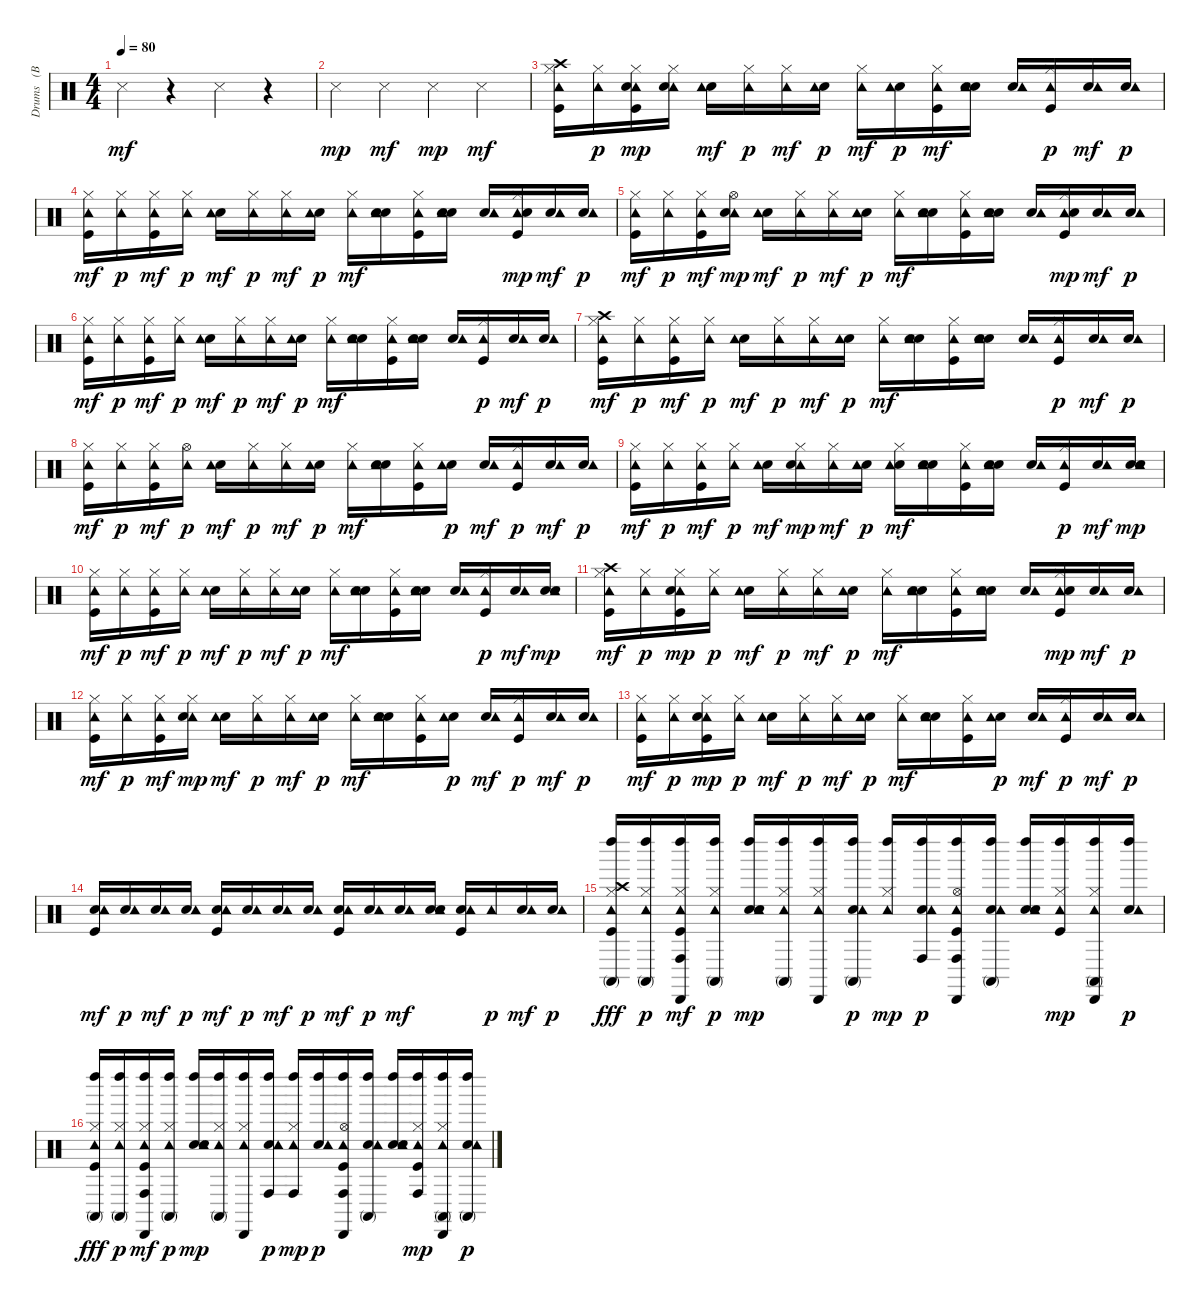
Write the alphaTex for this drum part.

\track ("Drums   (BB)" "Drums   (B") {instrument percussion}
\staff {score}
\articulation defaults
\ts (4 4)
\tempo 80
\clef neutral
\ks c "Snare (side stick) 3".4{dy mf}
r.4 "Snare (side stick) 3".4 r.4 |
"Snare (side stick) 3".4{dy mp} "Snare (side stick) 3".4{dy mf} "Snare (side stick) 3".4{dy mp} "Snare (side stick) 3".4{dy mf} |
("Kick (hit)" "Hi-Hat (closed)" "Crash high (hit)" "Tambourine (hit)").16 ("Hi-Hat (closed)" "Tambourine (hit)").16{dy p} ("Kick (hit)" "Hi-Hat (closed)" "Tambourine (hit)" "Hand Clap (hit)").16{dy mp} ("Hi-Hat (closed)" "Tambourine (hit)" "Hand Clap (hit)").16 ("Snare (hit) 2" "Tambourine (hit)").16{dy mf} ("Hi-Hat (closed)" "Tambourine (hit)").16{dy p} ("Hi-Hat (closed)" "Tambourine (hit)").16{dy mf} ("Snare (hit) 2" "Tambourine (hit)").16{dy p} ("Hi-Hat (closed)" "Tambourine (hit)").16{dy mf} ("Snare (hit) 2" "Tambourine (hit)").16{dy p} ("Kick (hit)" "Hi-Hat (closed)" "Tambourine (hit)").16{dy mf} ("Snare (hit) 2" "Tambourine (hit)" "Hand Clap (hit)").16 ("Snare (hit) 2" "Tambourine (hit)").16 ("Kick (hit)" "Hi-Hat (closed)" "Tambourine (hit)").16{dy p} ("Snare (hit) 2" "Tambourine (hit)").16{dy mf} ("Snare (hit) 2" "Tambourine (hit)").16{dy p} |
("Kick (hit)" "Hi-Hat (closed)" "Tambourine (hit)").16{dy mf} ("Hi-Hat (closed)" "Tambourine (hit)").16{dy p} ("Kick (hit)" "Hi-Hat (closed)" "Tambourine (hit)").16{dy mf} ("Hi-Hat (closed)" "Tambourine (hit)").16{dy p} ("Snare (hit) 2" "Tambourine (hit)").16{dy mf} ("Hi-Hat (closed)" "Tambourine (hit)").16{dy p} ("Hi-Hat (closed)" "Tambourine (hit)").16{dy mf} ("Snare (hit) 2" "Tambourine (hit)").16{dy p} ("Hi-Hat (closed)" "Tambourine (hit)").16{dy mf} ("Snare (hit) 2" "Tambourine (hit)" "Hand Clap (hit)").16 ("Kick (hit)" "Hi-Hat (closed)" "Tambourine (hit)").16 ("Snare (hit) 2" "Tambourine (hit)" "Hand Clap (hit)").16 ("Snare (hit) 2" "Tambourine (hit)").16 ("Kick (hit)" "Hi-Hat (closed)" "Tambourine (hit)" "Hand Clap (hit)").16{dy mp} ("Snare (hit) 2" "Tambourine (hit)").16{dy mf} ("Snare (hit) 2" "Tambourine (hit)").16{dy p} |
("Kick (hit)" "Hi-Hat (closed)" "Tambourine (hit)").16{dy mf} ("Hi-Hat (closed)" "Tambourine (hit)").16{dy p} ("Kick (hit)" "Hi-Hat (closed)" "Tambourine (hit)").16{dy mf} ("Hi-Hat (open)" "Tambourine (hit)" "Hand Clap (hit)").16{dy mp} ("Snare (hit) 2" "Tambourine (hit)").16{dy mf} ("Hi-Hat (closed)" "Tambourine (hit)").16{dy p} ("Hi-Hat (closed)" "Tambourine (hit)").16{dy mf} ("Snare (hit) 2" "Tambourine (hit)").16{dy p} ("Hi-Hat (closed)" "Tambourine (hit)").16{dy mf} ("Snare (hit) 2" "Tambourine (hit)" "Hand Clap (hit)").16 ("Kick (hit)" "Hi-Hat (closed)" "Tambourine (hit)").16 ("Snare (hit) 2" "Tambourine (hit)" "Hand Clap (hit)").16 ("Snare (hit) 2" "Tambourine (hit)").16 ("Kick (hit)" "Hi-Hat (closed)" "Tambourine (hit)" "Hand Clap (hit)").16{dy mp} ("Snare (hit) 2" "Tambourine (hit)").16{dy mf} ("Snare (hit) 2" "Tambourine (hit)").16{dy p} |
("Kick (hit)" "Hi-Hat (closed)" "Tambourine (hit)").16{dy mf} ("Hi-Hat (closed)" "Tambourine (hit)").16{dy p} ("Kick (hit)" "Hi-Hat (closed)" "Tambourine (hit)").16{dy mf} ("Hi-Hat (closed)" "Tambourine (hit)").16{dy p} ("Snare (hit) 2" "Tambourine (hit)").16{dy mf} ("Hi-Hat (closed)" "Tambourine (hit)").16{dy p} ("Hi-Hat (closed)" "Tambourine (hit)").16{dy mf} ("Snare (hit) 2" "Tambourine (hit)").16{dy p} ("Hi-Hat (closed)" "Tambourine (hit)").16{dy mf} ("Snare (hit) 2" "Tambourine (hit)" "Hand Clap (hit)").16 ("Kick (hit)" "Hi-Hat (closed)" "Tambourine (hit)").16 ("Snare (hit) 2" "Tambourine (hit)" "Hand Clap (hit)").16 ("Snare (hit) 2" "Tambourine (hit)").16 ("Kick (hit)" "Hi-Hat (closed)" "Tambourine (hit)").16{dy p} ("Snare (hit) 2" "Tambourine (hit)").16{dy mf} ("Snare (hit) 2" "Tambourine (hit)").16{dy p} |
("Kick (hit)" "Hi-Hat (closed)" "Crash high (hit)" "Tambourine (hit)").16{dy mf} ("Hi-Hat (closed)" "Tambourine (hit)").16{dy p} ("Kick (hit)" "Hi-Hat (closed)" "Tambourine (hit)").16{dy mf} ("Hi-Hat (closed)" "Tambourine (hit)").16{dy p} ("Snare (hit) 2" "Tambourine (hit)").16{dy mf} ("Hi-Hat (closed)" "Tambourine (hit)").16{dy p} ("Hi-Hat (closed)" "Tambourine (hit)").16{dy mf} ("Snare (hit) 2" "Tambourine (hit)").16{dy p} ("Hi-Hat (closed)" "Tambourine (hit)").16{dy mf} ("Snare (hit) 2" "Tambourine (hit)" "Hand Clap (hit)").16 ("Kick (hit)" "Hi-Hat (closed)" "Tambourine (hit)").16 ("Snare (hit) 2" "Tambourine (hit)" "Hand Clap (hit)").16 ("Snare (hit) 2" "Tambourine (hit)").16 ("Kick (hit)" "Hi-Hat (closed)" "Tambourine (hit)").16{dy p} ("Snare (hit) 2" "Tambourine (hit)").16{dy mf} ("Snare (hit) 2" "Tambourine (hit)").16{dy p} |
("Kick (hit)" "Hi-Hat (closed)" "Tambourine (hit)").16{dy mf} ("Hi-Hat (closed)" "Tambourine (hit)").16{dy p} ("Kick (hit)" "Hi-Hat (closed)" "Tambourine (hit)").16{dy mf} ("Hi-Hat (open)" "Tambourine (hit)").16{dy p} ("Snare (hit) 2" "Tambourine (hit)").16{dy mf} ("Hi-Hat (closed)" "Tambourine (hit)").16{dy p} ("Hi-Hat (closed)" "Tambourine (hit)").16{dy mf} ("Snare (hit) 2" "Tambourine (hit)").16{dy p} ("Hi-Hat (closed)" "Tambourine (hit)").16{dy mf} ("Snare (hit) 2" "Tambourine (hit)" "Hand Clap (hit)").16 ("Kick (hit)" "Hi-Hat (closed)" "Tambourine (hit)").16 ("Snare (hit) 2" "Tambourine (hit)").16{dy p} ("Snare (hit) 2" "Tambourine (hit)").16{dy mf} ("Kick (hit)" "Hi-Hat (closed)" "Tambourine (hit)").16{dy p} ("Snare (hit) 2" "Tambourine (hit)").16{dy mf} ("Snare (hit) 2" "Tambourine (hit)").16{dy p} |
("Kick (hit)" "Hi-Hat (closed)" "Tambourine (hit)").16{dy mf} ("Hi-Hat (closed)" "Tambourine (hit)").16{dy p} ("Kick (hit)" "Hi-Hat (closed)" "Tambourine (hit)").16{dy mf} ("Hi-Hat (closed)" "Tambourine (hit)").16{dy p} ("Snare (hit) 2" "Tambourine (hit)").16{dy mf} ("Hi-Hat (closed)" "Tambourine (hit)" "Hand Clap (hit)").16{dy mp} ("Hi-Hat (closed)" "Tambourine (hit)").16{dy mf} ("Snare (hit) 2" "Tambourine (hit)").16{dy p} ("Snare (hit) 2" "Hi-Hat (closed)" "Tambourine (hit)").16{dy mf} ("Snare (hit) 2" "Tambourine (hit)" "Hand Clap (hit)").16 ("Kick (hit)" "Hi-Hat (closed)" "Tambourine (hit)").16 ("Snare (hit) 2" "Tambourine (hit)" "Hand Clap (hit)").16 ("Snare (hit) 2" "Tambourine (hit)").16 ("Kick (hit)" "Hi-Hat (closed)" "Tambourine (hit)").16{dy p} ("Snare (hit) 2" "Tambourine (hit)").16{dy mf} ("Snare (hit) 2" "Tambourine (hit)" "Hand Clap (hit)").16{dy mp} |
("Kick (hit)" "Hi-Hat (closed)" "Tambourine (hit)").16{dy mf} ("Hi-Hat (closed)" "Tambourine (hit)").16{dy p} ("Kick (hit)" "Hi-Hat (closed)" "Tambourine (hit)").16{dy mf} ("Hi-Hat (closed)" "Tambourine (hit)").16{dy p} ("Snare (hit) 2" "Tambourine (hit)").16{dy mf} ("Hi-Hat (closed)" "Tambourine (hit)").16{dy p} ("Hi-Hat (closed)" "Tambourine (hit)").16{dy mf} ("Snare (hit) 2" "Tambourine (hit)").16{dy p} ("Hi-Hat (closed)" "Tambourine (hit)").16{dy mf} ("Snare (hit) 2" "Tambourine (hit)" "Hand Clap (hit)").16 ("Kick (hit)" "Hi-Hat (closed)" "Tambourine (hit)").16 ("Snare (hit) 2" "Tambourine (hit)" "Hand Clap (hit)").16 ("Snare (hit) 2" "Tambourine (hit)").16 ("Kick (hit)" "Hi-Hat (closed)" "Tambourine (hit)").16{dy p} ("Snare (hit) 2" "Tambourine (hit)").16{dy mf} ("Snare (hit) 2" "Tambourine (hit)" "Hand Clap (hit)").16{dy mp} |
("Kick (hit)" "Hi-Hat (closed)" "Crash high (hit)" "Tambourine (hit)").16{dy mf} ("Hi-Hat (closed)" "Tambourine (hit)").16{dy p} ("Kick (hit)" "Hi-Hat (closed)" "Tambourine (hit)" "Hand Clap (hit)").16{dy mp} ("Hi-Hat (closed)" "Tambourine (hit)").16{dy p} ("Snare (hit) 2" "Tambourine (hit)").16{dy mf} ("Hi-Hat (closed)" "Tambourine (hit)").16{dy p} ("Hi-Hat (closed)" "Tambourine (hit)").16{dy mf} ("Snare (hit) 2" "Tambourine (hit)").16{dy p} ("Hi-Hat (closed)" "Tambourine (hit)").16{dy mf} ("Snare (hit) 2" "Tambourine (hit)" "Hand Clap (hit)").16 ("Kick (hit)" "Hi-Hat (closed)" "Tambourine (hit)").16 ("Snare (hit) 2" "Tambourine (hit)" "Hand Clap (hit)").16 ("Snare (hit) 2" "Tambourine (hit)").16 ("Kick (hit)" "Hi-Hat (closed)" "Tambourine (hit)" "Hand Clap (hit)").16{dy mp} ("Snare (hit) 2" "Tambourine (hit)").16{dy mf} ("Snare (hit) 2" "Tambourine (hit)").16{dy p} |
("Kick (hit)" "Hi-Hat (closed)" "Tambourine (hit)").16{dy mf} ("Hi-Hat (closed)" "Tambourine (hit)").16{dy p} ("Kick (hit)" "Hi-Hat (closed)" "Tambourine (hit)").16{dy mf} ("Hi-Hat (closed)" "Tambourine (hit)" "Hand Clap (hit)").16{dy mp} ("Snare (hit) 2" "Tambourine (hit)").16{dy mf} ("Hi-Hat (closed)" "Tambourine (hit)").16{dy p} ("Hi-Hat (closed)" "Tambourine (hit)").16{dy mf} ("Snare (hit) 2" "Tambourine (hit)").16{dy p} ("Hi-Hat (closed)" "Tambourine (hit)").16{dy mf} ("Snare (hit) 2" "Tambourine (hit)" "Hand Clap (hit)").16 ("Kick (hit)" "Hi-Hat (closed)" "Tambourine (hit)").16 ("Snare (hit) 2" "Tambourine (hit)").16{dy p} ("Snare (hit) 2" "Tambourine (hit)").16{dy mf} ("Kick (hit)" "Hi-Hat (closed)" "Tambourine (hit)").16{dy p} ("Snare (hit) 2" "Tambourine (hit)").16{dy mf} ("Snare (hit) 2" "Tambourine (hit)").16{dy p} |
("Kick (hit)" "Hi-Hat (closed)" "Tambourine (hit)").16{dy mf} ("Hi-Hat (closed)" "Tambourine (hit)").16{dy p} ("Kick (hit)" "Hi-Hat (closed)" "Tambourine (hit)" "Hand Clap (hit)").16{dy mp} ("Hi-Hat (closed)" "Tambourine (hit)").16{dy p} ("Snare (hit) 2" "Tambourine (hit)").16{dy mf} ("Hi-Hat (closed)" "Tambourine (hit)").16{dy p} ("Hi-Hat (closed)" "Tambourine (hit)").16{dy mf} ("Snare (hit) 2" "Tambourine (hit)").16{dy p} ("Hi-Hat (closed)" "Tambourine (hit)").16{dy mf} ("Snare (hit) 2" "Tambourine (hit)" "Hand Clap (hit)").16 ("Kick (hit)" "Hi-Hat (closed)" "Tambourine (hit)").16 ("Snare (hit) 2" "Tambourine (hit)").16{dy p} ("Snare (hit) 2" "Tambourine (hit)").16{dy mf} ("Kick (hit)" "Hi-Hat (closed)" "Tambourine (hit)").16{dy p} ("Snare (hit) 2" "Tambourine (hit)").16{dy mf} ("Snare (hit) 2" "Tambourine (hit)").16{dy p} |
("Kick (hit)" "Snare (hit) 2" "Tambourine (hit)").16{dy mf} ("Snare (hit) 2" "Tambourine (hit)").16{dy p} ("Snare (hit) 2" "Tambourine (hit)").16{dy mf} ("Snare (hit) 2" "Tambourine (hit)").16{dy p} ("Kick (hit)" "Snare (hit) 2" "Tambourine (hit)").16{dy mf} ("Snare (hit) 2" "Tambourine (hit)").16{dy p} ("Snare (hit) 2" "Tambourine (hit)").16{dy mf} ("Snare (hit) 2" "Tambourine (hit)").16{dy p} ("Kick (hit)" "Snare (hit) 2" "Tambourine (hit)").16{dy mf} ("Snare (hit) 2" "Tambourine (hit)").16{dy p} ("Snare (hit) 2" "Tambourine (hit)").16{dy mf} ("Snare (hit) 2" "Tambourine (hit)" "Hand Clap (hit)").16 ("Kick (hit)" "Snare (hit) 2" "Tambourine (hit)").16 "Tambourine (hit)".16{dy p} ("Snare (hit) 2" "Tambourine (hit)").16{dy mf} ("Snare (hit) 2" "Tambourine (hit)").16{dy p} |
("Kick (hit)" "Hi-Hat (closed)" "Crash high (hit)" "Conga high (mute)" "Tambourine (hit)" "Left Maraca (hit)").16{dy fff} ("Hi-Hat (closed)" "Conga high (mute)" "Tambourine (hit)" "Left Maraca (hit)").16{dy p} ("Kick (hit)" "Hi-Hat (closed)" "Conga high (hit)" "Tambourine (hit)" "Left Maraca (hit)" "Cabasa (hit)").16{dy mf} ("Hi-Hat (closed)" "Conga high (mute)" "Tambourine (hit)" "Left Maraca (hit)").16{dy p} ("Snare (hit) 2" "Tambourine (hit)" "Hand Clap (hit)" "Left Maraca (hit)").16{dy mp} ("Hi-Hat (closed)" "Conga high (mute)" "Tambourine (hit)" "Left Maraca (hit)").16 ("Hi-Hat (closed)" "Tambourine (hit)" "Left Maraca (hit)" "Cabasa (hit)").16 ("Snare (hit) 2" "Conga high (mute)" "Tambourine (hit)" "Left Maraca (hit)").16{dy p} ("Hi-Hat (closed)" "Tambourine (hit)" "Left Maraca (hit)").16{dy mp} ("Snare (hit) 2" "Conga high (hit)" "Tambourine (hit)" "Left Maraca (hit)").16{dy p} ("Kick (hit)" "Hi-Hat (open)" "Conga high (hit)" "Tambourine (hit)" "Left Maraca (hit)" "Cabasa (hit)").16 ("Snare (hit) 2" "Conga high (mute)" "Tambourine (hit)" "Left Maraca (hit)").16 ("Snare (hit) 2" "Tambourine (hit)" "Hand Clap (hit)" "Left Maraca (hit)").16 ("Kick (hit)" "Hi-Hat (closed)" "Tambourine (hit)" "Left Maraca (hit)").16{dy mp} ("Hi-Hat (closed)" "Conga high (mute)" "Tambourine (hit)" "Left Maraca (hit)" "Cabasa (hit)").16 ("Snare (hit) 2" "Tambourine (hit)" "Left Maraca (hit)").16{dy p} |
("Kick (hit)" "Hi-Hat (closed)" "Conga high (mute)" "Tambourine (hit)" "Left Maraca (hit)").16{dy fff} ("Hi-Hat (closed)" "Conga high (mute)" "Tambourine (hit)" "Left Maraca (hit)").16{dy p} ("Kick (hit)" "Hi-Hat (closed)" "Conga high (hit)" "Tambourine (hit)" "Left Maraca (hit)" "Cabasa (hit)").16{dy mf} ("Hi-Hat (closed)" "Conga high (mute)" "Tambourine (hit)" "Left Maraca (hit)").16{dy p} ("Snare (hit) 2" "Tambourine (hit)" "Hand Clap (hit)" "Left Maraca (hit)").16{dy mp} ("Hi-Hat (closed)" "Conga high (mute)" "Tambourine (hit)" "Left Maraca (hit)").16 ("Hi-Hat (closed)" "Tambourine (hit)" "Left Maraca (hit)" "Cabasa (hit)").16 ("Snare (hit) 2" "Conga high (hit)" "Tambourine (hit)" "Left Maraca (hit)").16{dy p} ("Hi-Hat (closed)" "Conga high (hit)" "Tambourine (hit)" "Left Maraca (hit)").16{dy mp} ("Snare (hit) 2" "Tambourine (hit)" "Left Maraca (hit)").16{dy p} ("Kick (hit)" "Hi-Hat (open)" "Conga high (hit)" "Tambourine (hit)" "Left Maraca (hit)" "Cabasa (hit)").16 ("Snare (hit) 2" "Conga high (mute)" "Tambourine (hit)" "Left Maraca (hit)").16 ("Snare (hit) 2" "Tambourine (hit)" "Hand Clap (hit)" "Left Maraca (hit)").16 ("Kick (hit)" "Hi-Hat (closed)" "Conga high (hit)" "Tambourine (hit)" "Left Maraca (hit)").16{dy mp} ("Hi-Hat (closed)" "Conga high (mute)" "Tambourine (hit)" "Left Maraca (hit)" "Cabasa (hit)").16 ("Snare (hit) 2" "Conga high (mute)" "Tambourine (hit)" "Left Maraca (hit)").16{dy p}
